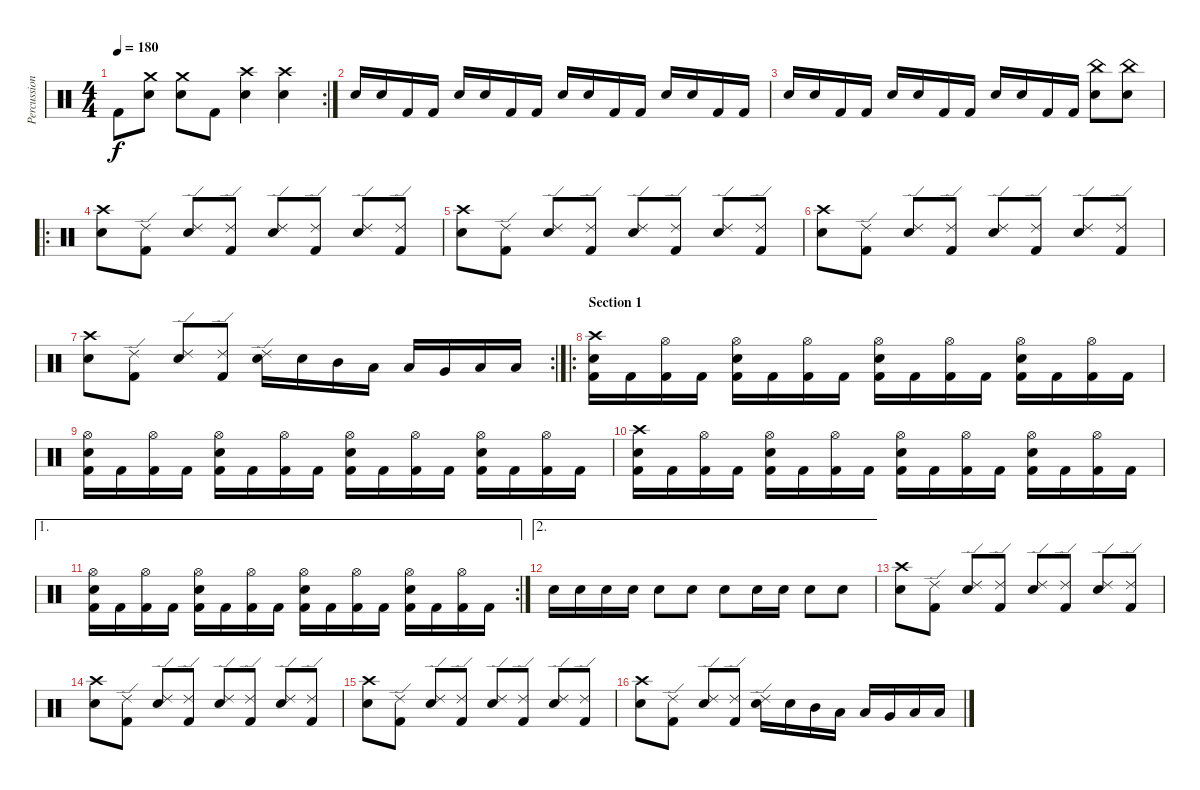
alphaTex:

\track ("Percussions" "Percussion") {instrument percussion}
\staff {score}
\articulation defaults
\rc 2
\ts (4 4)
\tempo 180
\clef neutral
\ks c "Kick (hit) 2".8{dy f}
("Crash medium (hit)" "Snare (hit) 2").8 ("Crash medium (hit)" "Snare (hit) 2").8 "Kick (hit) 2".8 ("Crash high (hit)" "Snare (hit) 2").4 ("Crash high (hit)" "Snare (hit) 2").4 |
"Snare (hit) 2".16 "Snare (hit) 2".16 "Kick (hit) 2".16 "Kick (hit) 2".16 "Snare (hit) 2".16 "Snare (hit) 2".16 "Kick (hit) 2".16 "Kick (hit) 2".16 "Snare (hit) 2".16 "Snare (hit) 2".16 "Kick (hit) 2".16 "Kick (hit) 2".16 "Snare (hit) 2".16 "Snare (hit) 2".16 "Kick (hit) 2".16 "Kick (hit) 2".16 |
"Snare (hit) 2".16 "Snare (hit) 2".16 "Kick (hit) 2".16 "Kick (hit) 2".16 "Snare (hit) 2".16 "Snare (hit) 2".16 "Kick (hit) 2".16 "Kick (hit) 2".16 "Snare (hit) 2".16 "Snare (hit) 2".16 "Kick (hit) 2".16 "Kick (hit) 2".16 ("China (hit)" "Snare (hit) 2").8 ("China (hit)" "Snare (hit) 2").8 |
\ro
("Crash high (hit)" "Snare (hit) 2").8 ("Ride (edge) 2" "Kick (hit) 2").8 ("Ride (edge) 2" "Snare (hit) 2").8 ("Ride (edge) 2" "Kick (hit) 2").8 ("Ride (edge) 2" "Snare (hit) 2").8 ("Ride (edge) 2" "Kick (hit) 2").8 ("Ride (edge) 2" "Snare (hit) 2").8 ("Ride (edge) 2" "Kick (hit) 2").8 |
("Crash high (hit)" "Snare (hit) 2").8 ("Ride (edge) 2" "Kick (hit) 2").8 ("Ride (edge) 2" "Snare (hit) 2").8 ("Ride (edge) 2" "Kick (hit) 2").8 ("Ride (edge) 2" "Snare (hit) 2").8 ("Ride (edge) 2" "Kick (hit) 2").8 ("Ride (edge) 2" "Snare (hit) 2").8 ("Ride (edge) 2" "Kick (hit) 2").8 |
("Crash high (hit)" "Snare (hit) 2").8 ("Ride (edge) 2" "Kick (hit) 2").8 ("Ride (edge) 2" "Snare (hit) 2").8 ("Ride (edge) 2" "Kick (hit) 2").8 ("Ride (edge) 2" "Snare (hit) 2").8 ("Ride (edge) 2" "Kick (hit) 2").8 ("Ride (edge) 2" "Snare (hit) 2").8 ("Ride (edge) 2" "Kick (hit) 2").8 |
\rc 2
("Crash high (hit)" "Snare (hit) 2").8 ("Ride (edge) 2" "Kick (hit) 2").8 ("Ride (edge) 2" "Snare (hit) 2").8 ("Ride (edge) 2" "Kick (hit) 2").8 ("Ride (edge) 2" "Snare (hit) 2").16 "Snare (hit) 2".16 "Mid Tom (hit)".16 "Low Tom (hit)".16 "Low Tom (hit)".16 "Very Low Tom (hit)".16 "Low Floor Tom (hit)".16 "Low Floor Tom (hit)".16 |
\ro
\section ("" "Section 1")
("Crash high (hit)" "Snare (hit) 2" "Kick (hit) 2").16 "Kick (hit) 2".16 ("Hi-Hat (open)" "Kick (hit) 2").16 "Kick (hit) 2".16 ("Hi-Hat (open)" "Snare (hit) 2" "Kick (hit) 2").16 "Kick (hit) 2".16 ("Hi-Hat (open)" "Kick (hit) 2").16 "Kick (hit) 2".16 ("Hi-Hat (open)" "Snare (hit) 2" "Kick (hit) 2").16 "Kick (hit) 2".16 ("Hi-Hat (open)" "Kick (hit) 2").16 "Kick (hit) 2".16 ("Hi-Hat (open)" "Snare (hit) 2" "Kick (hit) 2").16 "Kick (hit) 2".16 ("Hi-Hat (open)" "Kick (hit) 2").16 "Kick (hit) 2".16 |
("Hi-Hat (open)" "Snare (hit) 2" "Kick (hit) 2").16 "Kick (hit) 2".16 ("Hi-Hat (open)" "Kick (hit) 2").16 "Kick (hit) 2".16 ("Hi-Hat (open)" "Snare (hit) 2" "Kick (hit) 2").16 "Kick (hit) 2".16 ("Hi-Hat (open)" "Kick (hit) 2").16 "Kick (hit) 2".16 ("Hi-Hat (open)" "Snare (hit) 2" "Kick (hit) 2").16 "Kick (hit) 2".16 ("Hi-Hat (open)" "Kick (hit) 2").16 "Kick (hit) 2".16 ("Hi-Hat (open)" "Snare (hit) 2" "Kick (hit) 2").16 "Kick (hit) 2".16 ("Hi-Hat (open)" "Kick (hit) 2").16 "Kick (hit) 2".16 |
("Crash high (hit)" "Snare (hit) 2" "Kick (hit) 2").16 "Kick (hit) 2".16 ("Hi-Hat (open)" "Kick (hit) 2").16 "Kick (hit) 2".16 ("Hi-Hat (open)" "Snare (hit) 2" "Kick (hit) 2").16 "Kick (hit) 2".16 ("Hi-Hat (open)" "Kick (hit) 2").16 "Kick (hit) 2".16 ("Hi-Hat (open)" "Snare (hit) 2" "Kick (hit) 2").16 "Kick (hit) 2".16 ("Hi-Hat (open)" "Kick (hit) 2").16 "Kick (hit) 2".16 ("Hi-Hat (open)" "Snare (hit) 2" "Kick (hit) 2").16 "Kick (hit) 2".16 ("Hi-Hat (open)" "Kick (hit) 2").16 "Kick (hit) 2".16 |
\ae 1
\rc 2
("Hi-Hat (open)" "Snare (hit) 2" "Kick (hit) 2").16 "Kick (hit) 2".16 ("Hi-Hat (open)" "Kick (hit) 2").16 "Kick (hit) 2".16 ("Hi-Hat (open)" "Snare (hit) 2" "Kick (hit) 2").16 "Kick (hit) 2".16 ("Hi-Hat (open)" "Kick (hit) 2").16 "Kick (hit) 2".16 ("Hi-Hat (open)" "Snare (hit) 2" "Kick (hit) 2").16 "Kick (hit) 2".16 ("Hi-Hat (open)" "Kick (hit) 2").16 "Kick (hit) 2".16 ("Hi-Hat (open)" "Snare (hit) 2" "Kick (hit) 2").16 "Kick (hit) 2".16 ("Hi-Hat (open)" "Kick (hit) 2").16 "Kick (hit) 2".16 |
\ae 2 "Snare (hit) 2".16 "Snare (hit) 2".16 "Snare (hit) 2".16 "Snare (hit) 2".16 "Snare (hit) 2".8 "Snare (hit) 2".8 "Snare (hit) 2".8 "Snare (hit) 2".16 "Snare (hit) 2".16 "Snare (hit) 2".8 "Snare (hit) 2".8
|
("Crash high (hit)" "Snare (hit) 2").8 ("Ride (edge) 2" "Kick (hit) 2").8 ("Ride (edge) 2" "Snare (hit) 2").8 ("Ride (edge) 2" "Kick (hit) 2").8 ("Ride (edge) 2" "Snare (hit) 2").8 ("Ride (edge) 2" "Kick (hit) 2").8 ("Ride (edge) 2" "Snare (hit) 2").8 ("Ride (edge) 2" "Kick (hit) 2").8 |
("Crash high (hit)" "Snare (hit) 2").8 ("Ride (edge) 2" "Kick (hit) 2").8 ("Ride (edge) 2" "Snare (hit) 2").8 ("Ride (edge) 2" "Kick (hit) 2").8 ("Ride (edge) 2" "Snare (hit) 2").8 ("Ride (edge) 2" "Kick (hit) 2").8 ("Ride (edge) 2" "Snare (hit) 2").8 ("Ride (edge) 2" "Kick (hit) 2").8 |
("Crash high (hit)" "Snare (hit) 2").8 ("Ride (edge) 2" "Kick (hit) 2").8 ("Ride (edge) 2" "Snare (hit) 2").8 ("Ride (edge) 2" "Kick (hit) 2").8 ("Ride (edge) 2" "Snare (hit) 2").8 ("Ride (edge) 2" "Kick (hit) 2").8 ("Ride (edge) 2" "Snare (hit) 2").8 ("Ride (edge) 2" "Kick (hit) 2").8 |
("Crash high (hit)" "Snare (hit) 2").8 ("Ride (edge) 2" "Kick (hit) 2").8 ("Ride (edge) 2" "Snare (hit) 2").8 ("Ride (edge) 2" "Kick (hit) 2").8 ("Ride (edge) 2" "Snare (hit) 2").16 "Snare (hit) 2".16 "Mid Tom (hit)".16 "Low Tom (hit)".16 "Low Tom (hit)".16 "Very Low Tom (hit)".16 "Low Floor Tom (hit)".16 "Low Floor Tom (hit)".16
